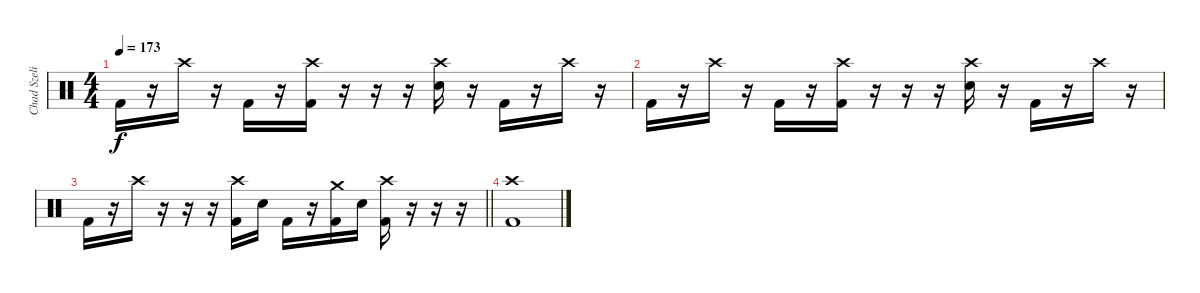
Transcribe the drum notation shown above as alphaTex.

\track ("Chad Szeliga" "Chad Szeli") {instrument percussion}
\staff {score}
\articulation defaults
\ts (4 4)
\tempo 173
\clef neutral
\ks c "Kick (hit) 2".16{dy f}
r.16 "Crash high (hit)".16 r.16 "Kick (hit) 2".16 r.16 ("Crash high (hit)" "Kick (hit) 2").16 r.16 r.16 r.16 ("Crash high (hit)" "Electric Snare (hit)").16 r.16 "Kick (hit) 2".16 r.16 "Crash high (hit)".16 r.16 |
"Kick (hit) 2".16 r.16 "Crash high (hit)".16 r.16 "Kick (hit) 2".16 r.16 ("Crash high (hit)" "Kick (hit) 2").16 r.16 r.16 r.16 ("Crash high (hit)" "Electric Snare (hit)").16 r.16 "Kick (hit) 2".16 r.16 "Crash high (hit)".16 r.16 |
\barLineRight lightlight "Kick (hit) 2".16
r.16 "Crash high (hit)".16 r.16 r.16 r.16 ("Crash high (hit)" "Kick (hit) 2").16 "Electric Snare (hit)".16 "Kick (hit) 2".16 r.16 ("Crash medium (hit)" "Kick (hit) 2").16 "Electric Snare (hit)".16 ("Crash high (hit)" "Kick (hit) 2").16 r.16 r.16 r.16 |
("Crash high (hit)" "Kick (hit) 2").1
